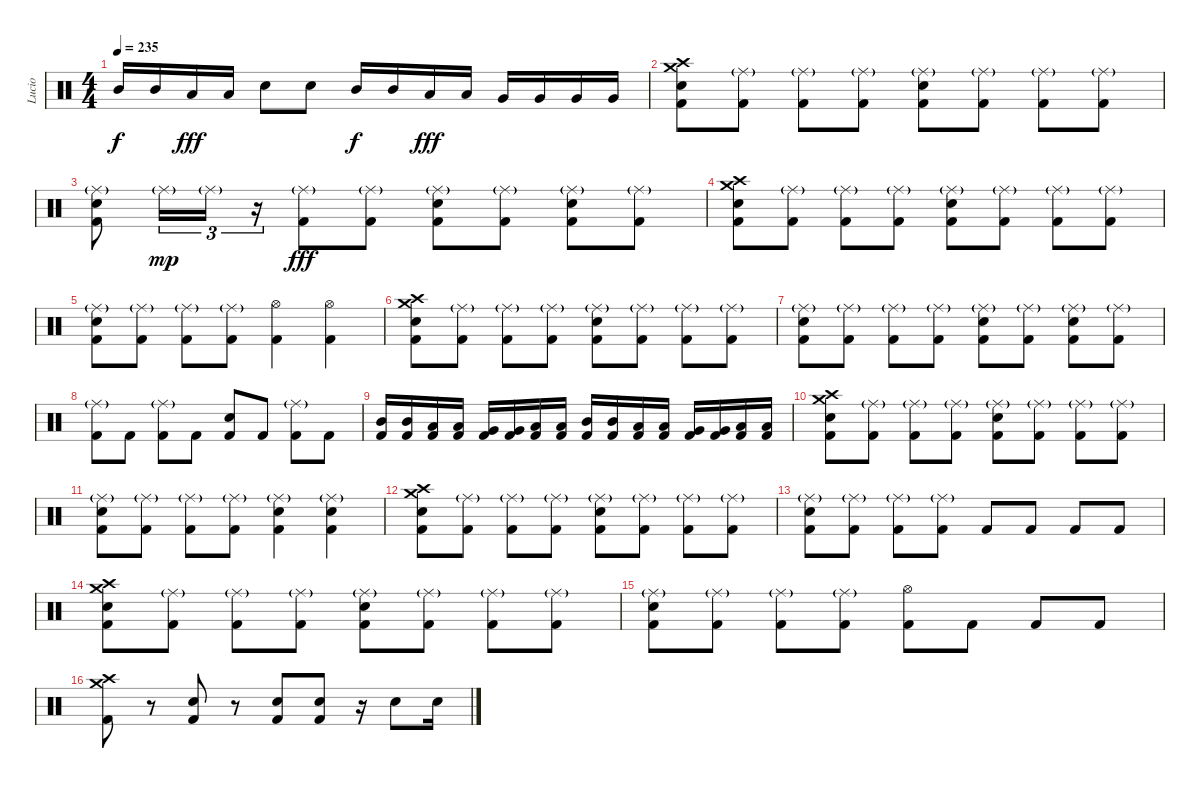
\track ("Lucio" "Lucio") {instrument percussion}
\staff {score}
\articulation defaults
\ts (4 4)
\tempo 235
\clef neutral
\ks c "Mid Tom (hit)".16{dy f} "Mid Tom (hit)".16 "Low Tom (hit)".16{dy fff} "Low Tom (hit)".16 "Electric Snare (hit)".8 "Electric Snare (hit)".8 "Mid Tom (hit)".16{dy f} "Mid Tom (hit)".16 "Low Tom (hit)".16{dy fff} "Low Tom (hit)".16 "Very Low Tom (hit)".16 "Very Low Tom (hit)".16 "Very Low Tom (hit)".16 "Very Low Tom (hit)".16
|
("Crash medium (hit)" "Crash high (hit)" "Electric Snare (hit)" "Kick (hit) 2").8 ("Ride (middle)"{g} "Kick (hit) 2").8 ("Ride (middle)"{g} "Kick (hit) 2").8 ("Ride (middle)"{g} "Kick (hit) 2").8 ("Ride (middle)"{g} "Electric Snare (hit)" "Kick (hit) 2").8 ("Ride (middle)"{g} "Kick (hit) 2").8 ("Ride (middle)"{g} "Kick (hit) 2").8 ("Ride (middle)"{g} "Kick (hit) 2").8 |
("Ride (middle)"{g} "Electric Snare (hit)" "Kick (hit) 2").8 "Ride (middle)"{g}.16{tu (3 2) dy mp} "Ride (middle)"{g}.16{tu (3 2)} r.16{tu (3 2)} ("Ride (middle)"{g} "Kick (hit) 2").8{dy fff} ("Ride (middle)"{g} "Kick (hit) 2").8 ("Ride (middle)"{g} "Electric Snare (hit)" "Kick (hit) 2").8 ("Ride (middle)"{g} "Kick (hit) 2").8 ("Ride (middle)"{g} "Electric Snare (hit)" "Kick (hit) 2").8 ("Ride (middle)"{g} "Kick (hit) 2").8 |
("Crash medium (hit)" "Crash high (hit)" "Electric Snare (hit)" "Kick (hit) 2").8 ("Ride (middle)"{g} "Kick (hit) 2").8 ("Ride (middle)"{g} "Kick (hit) 2").8 ("Ride (middle)"{g} "Kick (hit) 2").8 ("Ride (middle)"{g} "Electric Snare (hit)" "Kick (hit) 2").8 ("Ride (middle)"{g} "Kick (hit) 2").8 ("Ride (middle)"{g} "Kick (hit) 2").8 ("Ride (middle)"{g} "Kick (hit) 2").8 |
("Ride (middle)"{g} "Electric Snare (hit)" "Kick (hit) 2").8 ("Ride (middle)"{g} "Kick (hit) 2").8 ("Ride (middle)"{g} "Kick (hit) 2").8 ("Ride (middle)"{g} "Kick (hit) 2").8 ("Hi-Hat (open)" "Kick (hit) 2").4 ("Hi-Hat (open)" "Kick (hit) 2").4 |
("Crash medium (hit)" "Crash high (hit)" "Electric Snare (hit)" "Kick (hit) 2").8 ("Ride (middle)"{g} "Kick (hit) 2").8 ("Ride (middle)"{g} "Kick (hit) 2").8 ("Ride (middle)"{g} "Kick (hit) 2").8 ("Ride (middle)"{g} "Electric Snare (hit)" "Kick (hit) 2").8 ("Ride (middle)"{g} "Kick (hit) 2").8 ("Ride (middle)"{g} "Kick (hit) 2").8 ("Ride (middle)"{g} "Kick (hit) 2").8 |
("Ride (middle)"{g} "Electric Snare (hit)" "Kick (hit) 2").8 ("Ride (middle)"{g} "Kick (hit) 2").8 ("Ride (middle)"{g} "Kick (hit) 2").8 ("Ride (middle)"{g} "Kick (hit) 2").8 ("Ride (middle)"{g} "Electric Snare (hit)" "Kick (hit) 2").8 ("Ride (middle)"{g} "Kick (hit) 2").8 ("Ride (middle)"{g} "Electric Snare (hit)" "Kick (hit) 2").8 ("Ride (middle)"{g} "Kick (hit) 2").8 |
("Ride (middle)"{g} "Kick (hit) 2").8 "Kick (hit) 2".8 ("Ride (middle)"{g} "Kick (hit) 2").8 "Kick (hit) 2".8 ("Electric Snare (hit)" "Kick (hit) 2").8 "Kick (hit) 2".8 ("Ride (middle)"{g} "Kick (hit) 2").8 "Kick (hit) 2".8 |
("Mid Tom (hit)" "Kick (hit) 2").16 ("Mid Tom (hit)" "Kick (hit) 2").16 ("Low Tom (hit)" "Kick (hit) 2").16 ("Low Tom (hit)" "Kick (hit) 2").16 ("Very Low Tom (hit)" "Kick (hit) 2").16 ("Very Low Tom (hit)" "Kick (hit) 2").16 ("Low Floor Tom (hit)" "Kick (hit) 2").16 ("Low Floor Tom (hit)" "Kick (hit) 2").16 ("Mid Tom (hit)" "Kick (hit) 2").16 ("Mid Tom (hit)" "Kick (hit) 2").16 ("Low Tom (hit)" "Kick (hit) 2").16 ("Low Tom (hit)" "Kick (hit) 2").16 ("Very Low Tom (hit)" "Kick (hit) 2").16 ("Very Low Tom (hit)" "Kick (hit) 2").16 ("Low Floor Tom (hit)" "Kick (hit) 2").16 ("Low Floor Tom (hit)" "Kick (hit) 2").16 |
("Crash medium (hit)" "Crash high (hit)" "Electric Snare (hit)" "Kick (hit) 2").8 ("Ride (middle)"{g} "Kick (hit) 2").8 ("Ride (middle)"{g} "Kick (hit) 2").8 ("Ride (middle)"{g} "Kick (hit) 2").8 ("Ride (middle)"{g} "Electric Snare (hit)" "Kick (hit) 2").8 ("Ride (middle)"{g} "Kick (hit) 2").8 ("Ride (middle)"{g} "Kick (hit) 2").8 ("Ride (middle)"{g} "Kick (hit) 2").8 |
("Ride (middle)"{g} "Electric Snare (hit)" "Kick (hit) 2").8 ("Ride (middle)"{g} "Kick (hit) 2").8 ("Ride (middle)"{g} "Kick (hit) 2").8 ("Ride (middle)"{g} "Kick (hit) 2").8 ("Ride (middle)"{g} "Electric Snare (hit)" "Kick (hit) 2").4 ("Ride (middle)"{g} "Electric Snare (hit)" "Kick (hit) 2").4 |
("Crash medium (hit)" "Crash high (hit)" "Electric Snare (hit)" "Kick (hit) 2").8 ("Ride (middle)"{g} "Kick (hit) 2").8 ("Ride (middle)"{g} "Kick (hit) 2").8 ("Ride (middle)"{g} "Kick (hit) 2").8 ("Ride (middle)"{g} "Electric Snare (hit)" "Kick (hit) 2").8 ("Ride (middle)"{g} "Kick (hit) 2").8 ("Ride (middle)"{g} "Kick (hit) 2").8 ("Ride (middle)"{g} "Kick (hit) 2").8 |
("Ride (middle)"{g} "Electric Snare (hit)" "Kick (hit) 2").8 ("Ride (middle)"{g} "Kick (hit) 2").8 ("Ride (middle)"{g} "Kick (hit) 2").8 ("Ride (middle)"{g} "Kick (hit) 2").8 "Kick (hit) 2".8 "Kick (hit) 2".8 "Kick (hit) 2".8 "Kick (hit) 2".8 |
("Crash medium (hit)" "Crash high (hit)" "Electric Snare (hit)" "Kick (hit) 2").8 ("Ride (middle)"{g} "Kick (hit) 2").8 ("Ride (middle)"{g} "Kick (hit) 2").8 ("Ride (middle)"{g} "Kick (hit) 2").8 ("Ride (middle)"{g} "Electric Snare (hit)" "Kick (hit) 2").8 ("Ride (middle)"{g} "Kick (hit) 2").8 ("Ride (middle)"{g} "Kick (hit) 2").8 ("Ride (middle)"{g} "Kick (hit) 2").8 |
("Ride (middle)"{g} "Electric Snare (hit)" "Kick (hit) 2").8 ("Ride (middle)"{g} "Kick (hit) 2").8 ("Ride (middle)"{g} "Kick (hit) 2").8 ("Ride (middle)"{g} "Kick (hit) 2").8 ("Hi-Hat (open)" "Kick (hit) 2").8 "Kick (hit) 2".8 "Kick (hit) 2".8 "Kick (hit) 2".8 |
("Crash medium (hit)" "Crash high (hit)" "Kick (hit) 2").8 r.8 ("Electric Snare (hit)" "Kick (hit) 2").8 r.8 ("Electric Snare (hit)" "Kick (hit) 2").8 ("Electric Snare (hit)" "Kick (hit) 2").8 r.16 "Electric Snare (hit)".8 "Electric Snare (hit)".16
